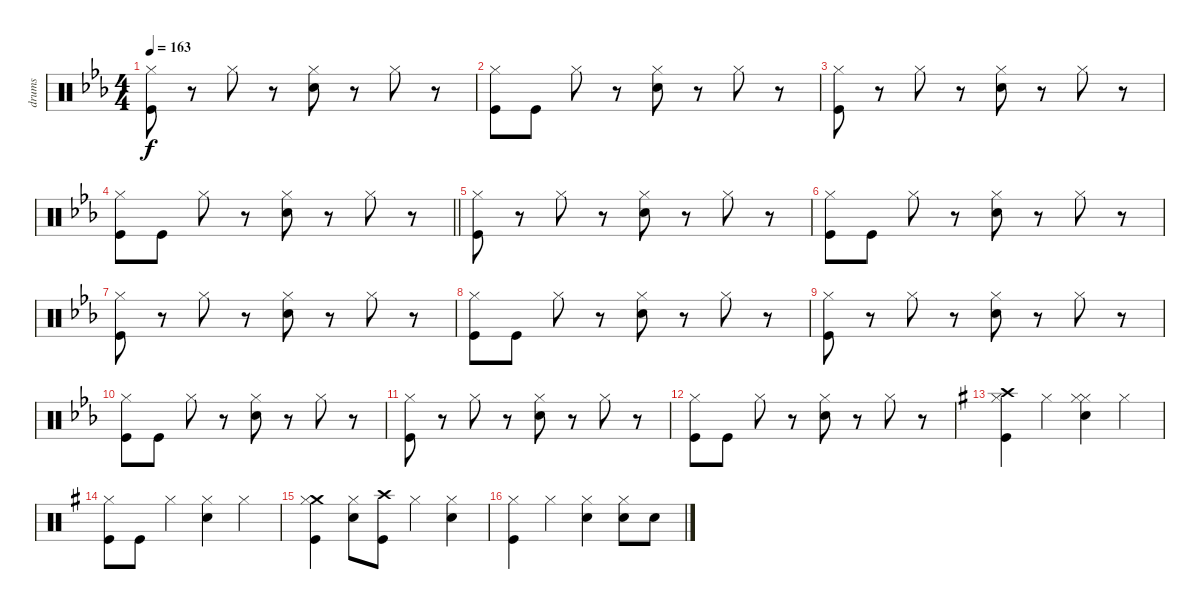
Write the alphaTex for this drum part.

\track ("drums" "drums") {instrument percussion}
\staff {score}
\articulation defaults
\ts (4 4)
\tempo 163
\clef neutral
\ks cminor
("Kick (hit)" "Hi-Hat (closed)").8{dy f} r.8 "Hi-Hat (closed)".8 r.8 ("Electric Snare (hit)" "Hi-Hat (closed)").8 r.8 "Hi-Hat (closed)".8 r.8 |
("Kick (hit)" "Hi-Hat (closed)").8 "Kick (hit)".8 "Hi-Hat (closed)".8 r.8 ("Electric Snare (hit)" "Hi-Hat (closed)").8 r.8 "Hi-Hat (closed)".8 r.8 |
("Kick (hit)" "Hi-Hat (closed)").8 r.8 "Hi-Hat (closed)".8 r.8 ("Electric Snare (hit)" "Hi-Hat (closed)").8 r.8 "Hi-Hat (closed)".8 r.8 |
\barLineRight lightlight
("Kick (hit)" "Hi-Hat (closed)").8 "Kick (hit)".8 "Hi-Hat (closed)".8 r.8 ("Electric Snare (hit)" "Hi-Hat (closed)").8 r.8 "Hi-Hat (closed)".8 r.8 |
("Kick (hit)" "Hi-Hat (closed)").8 r.8 "Hi-Hat (closed)".8 r.8 ("Electric Snare (hit)" "Hi-Hat (closed)").8 r.8 "Hi-Hat (closed)".8 r.8 |
("Kick (hit)" "Hi-Hat (closed)").8 "Kick (hit)".8 "Hi-Hat (closed)".8 r.8 ("Electric Snare (hit)" "Hi-Hat (closed)").8 r.8 "Hi-Hat (closed)".8 r.8 |
("Kick (hit)" "Hi-Hat (closed)").8 r.8 "Hi-Hat (closed)".8 r.8 ("Electric Snare (hit)" "Hi-Hat (closed)").8 r.8 "Hi-Hat (closed)".8 r.8 |
("Kick (hit)" "Hi-Hat (closed)").8 "Kick (hit)".8 "Hi-Hat (closed)".8 r.8 ("Electric Snare (hit)" "Hi-Hat (closed)").8 r.8 "Hi-Hat (closed)".8 r.8 |
("Kick (hit)" "Hi-Hat (closed)").8 r.8 "Hi-Hat (closed)".8 r.8 ("Electric Snare (hit)" "Hi-Hat (closed)").8 r.8 "Hi-Hat (closed)".8 r.8 |
("Kick (hit)" "Hi-Hat (closed)").8 "Kick (hit)".8 "Hi-Hat (closed)".8 r.8 ("Electric Snare (hit)" "Hi-Hat (closed)").8 r.8 "Hi-Hat (closed)".8 r.8 |
("Kick (hit)" "Hi-Hat (closed)").8 r.8 "Hi-Hat (closed)".8 r.8 ("Electric Snare (hit)" "Hi-Hat (closed)").8 r.8 "Hi-Hat (closed)".8 r.8 |
("Kick (hit)" "Hi-Hat (closed)").8 "Kick (hit)".8 "Hi-Hat (closed)".8 r.8 ("Electric Snare (hit)" "Hi-Hat (closed)").8 r.8 "Hi-Hat (closed)".8 r.8 |
\ks eminor
("Kick (hit)" "Crash high (hit)" "Hi-Hat (closed)").4 "Hi-Hat (closed)".4 ("Snare (hit) 2" "Hi-Hat (closed)" "Hi-Hat (closed)").4 "Hi-Hat (closed)".4 |
("Kick (hit)" "Hi-Hat (closed)").8 "Kick (hit)".8 "Hi-Hat (closed)".4 ("Snare (hit) 2" "Hi-Hat (closed)").4 "Hi-Hat (closed)".4 |
("Kick (hit)" "Crash medium (hit)" "Hi-Hat (closed)").4 ("Snare (hit) 2" "Hi-Hat (closed)").8 ("Crash high (hit)" "Kick (hit)").8 "Hi-Hat (closed)".4 ("Snare (hit) 2" "Hi-Hat (closed)").4 |
("Kick (hit)" "Hi-Hat (closed)").4 "Hi-Hat (closed)".4 ("Snare (hit) 2" "Hi-Hat (closed)").4 ("Snare (hit) 2" "Hi-Hat (closed)").8 "Snare (hit) 2".8
